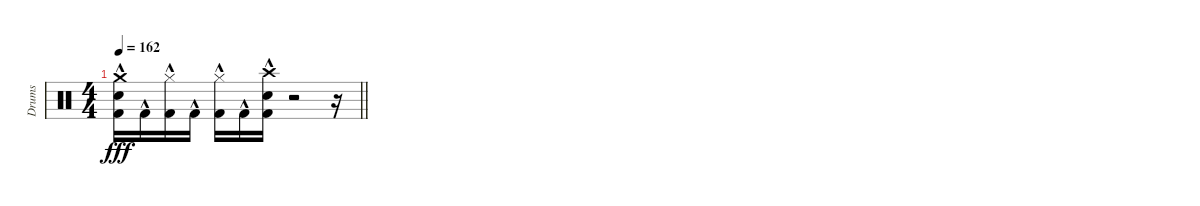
\track ("Drums" "Drums") {instrument percussion}
\staff {score}
\articulation defaults
\ts (4 4)
\tempo 162
\clef neutral
\barLineRight lightlight
\ks c
("Kick (hit) 2"{hac} "Electric Snare (hit)"{hac} "Crash medium (hit)"{hac}).16{dy fff} "Kick (hit) 2"{hac}.16 ("Hi-Hat (closed)"{hac} "Kick (hit) 2"{hac}).16 "Kick (hit) 2"{hac}.16 ("Hi-Hat (closed)"{hac} "Kick (hit) 2"{hac}).16 "Kick (hit) 2"{hac}.16 ("Kick (hit) 2"{hac} "Electric Snare (hit)"{hac} "Crash high (hit)"{hac}).16 r.2 r.16
